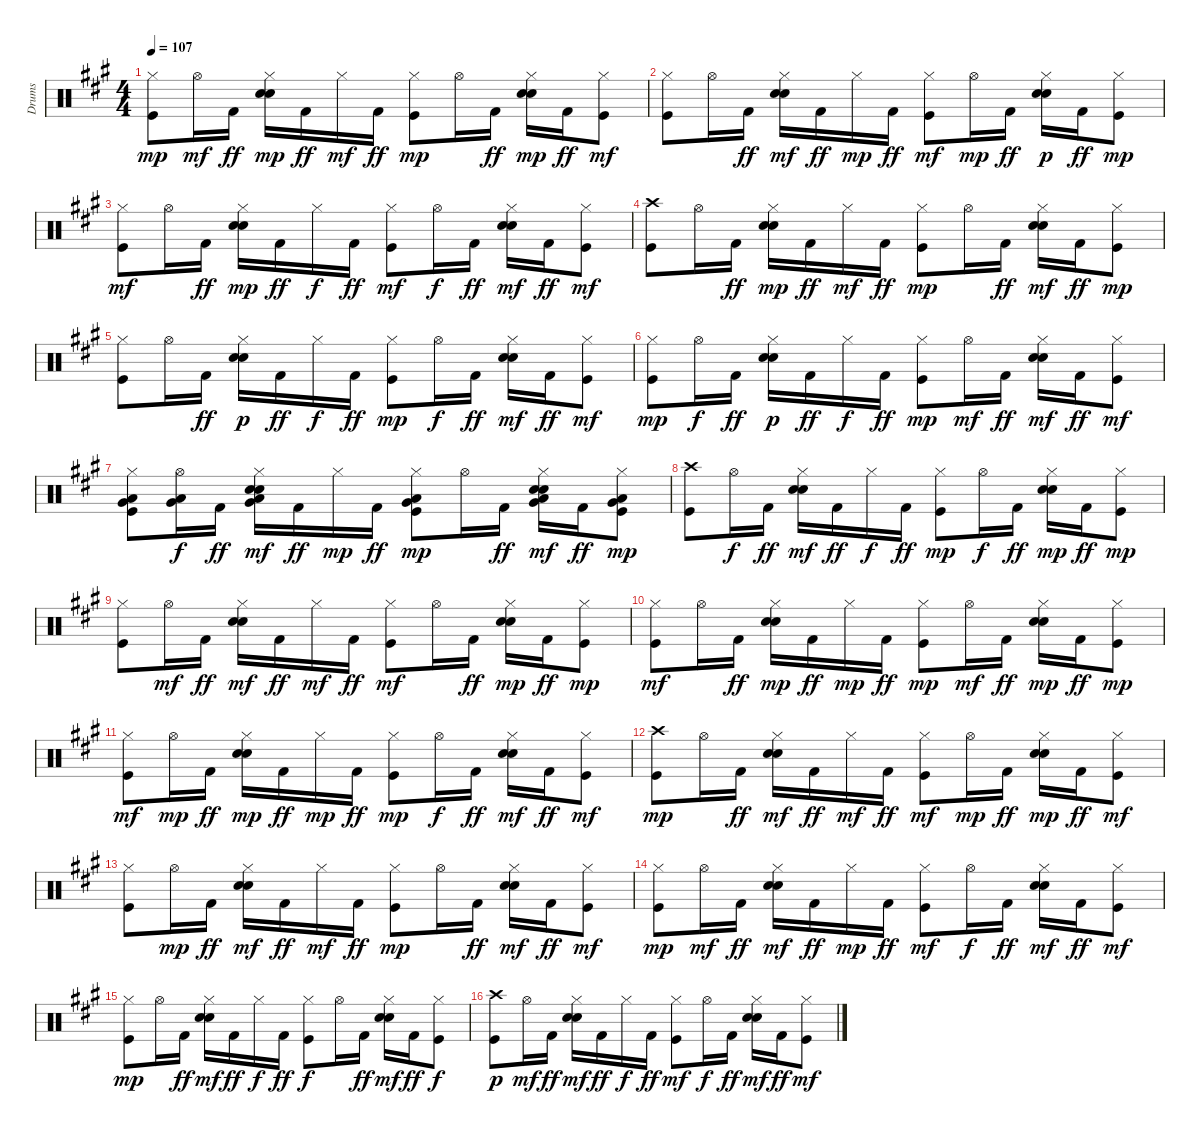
\track ("Drums" "Drums") {instrument percussion}
\staff {score}
\articulation defaults
\ts (4 4)
\tempo 107
\clef neutral
\ks a
("Kick (hit)" "Hi-Hat (closed)").8{dy mp} "Hi-Hat (open)".16{dy mf} "Kick (hit) 2".16{dy ff} ("Snare (hit) 2" "Hand Clap (hit)" "Hi-Hat (closed)").16{dy mp} "Kick (hit) 2".16{dy ff} "Hi-Hat (closed)".16{dy mf} "Kick (hit) 2".16{dy ff} ("Kick (hit)" "Hi-Hat (closed)").8{dy mp} "Hi-Hat (open)".16 "Kick (hit) 2".16{dy ff} ("Snare (hit) 2" "Hand Clap (hit)" "Hi-Hat (closed)").16{dy mp} "Kick (hit) 2".16{dy ff} ("Kick (hit)" "Hi-Hat (closed)").8{dy mf} |
("Kick (hit)" "Hi-Hat (closed)").8 "Hi-Hat (open)".16 "Kick (hit) 2".16{dy ff} ("Snare (hit) 2" "Hand Clap (hit)" "Hi-Hat (closed)").16{dy mf} "Kick (hit) 2".16{dy ff} "Hi-Hat (closed)".16{dy mp} "Kick (hit) 2".16{dy ff} ("Kick (hit)" "Hi-Hat (closed)").8{dy mf} "Hi-Hat (open)".16{dy mp} "Kick (hit) 2".16{dy ff} ("Snare (hit) 2" "Hand Clap (hit)" "Hi-Hat (closed)").16{dy p} "Kick (hit) 2".16{dy ff} ("Kick (hit)" "Hi-Hat (closed)").8{dy mp} |
("Kick (hit)" "Hi-Hat (closed)").8{dy mf} "Hi-Hat (open)".16 "Kick (hit) 2".16{dy ff} ("Snare (hit) 2" "Hand Clap (hit)" "Hi-Hat (closed)").16{dy mp} "Kick (hit) 2".16{dy ff} "Hi-Hat (closed)".16{dy f} "Kick (hit) 2".16{dy ff} ("Kick (hit)" "Hi-Hat (closed)").8{dy mf} "Hi-Hat (open)".16{dy f} "Kick (hit) 2".16{dy ff} ("Snare (hit) 2" "Hand Clap (hit)" "Hi-Hat (closed)").16{dy mf} "Kick (hit) 2".16{dy ff} ("Kick (hit)" "Hi-Hat (closed)").8{dy mf} |
("Kick (hit)" "Crash high (hit)").8 "Hi-Hat (open)".16 "Kick (hit) 2".16{dy ff} ("Snare (hit) 2" "Hand Clap (hit)" "Hi-Hat (closed)").16{dy mp} "Kick (hit) 2".16{dy ff} "Hi-Hat (closed)".16{dy mf} "Kick (hit) 2".16{dy ff} ("Kick (hit)" "Hi-Hat (closed)").8{dy mp} "Hi-Hat (open)".16 "Kick (hit) 2".16{dy ff} ("Snare (hit) 2" "Hand Clap (hit)" "Hi-Hat (closed)").16{dy mf} "Kick (hit) 2".16{dy ff} ("Kick (hit)" "Hi-Hat (closed)").8{dy mp} |
("Kick (hit)" "Hi-Hat (closed)").8 "Hi-Hat (open)".16 "Kick (hit) 2".16{dy ff} ("Snare (hit) 2" "Hand Clap (hit)" "Hi-Hat (closed)").16{dy p} "Kick (hit) 2".16{dy ff} "Hi-Hat (closed)".16{dy f} "Kick (hit) 2".16{dy ff} ("Kick (hit)" "Hi-Hat (closed)").8{dy mp} "Hi-Hat (open)".16{dy f} "Kick (hit) 2".16{dy ff} ("Snare (hit) 2" "Hand Clap (hit)" "Hi-Hat (closed)").16{dy mf} "Kick (hit) 2".16{dy ff} ("Kick (hit)" "Hi-Hat (closed)").8{dy mf} |
("Kick (hit)" "Hi-Hat (closed)").8{dy mp} "Hi-Hat (open)".16{dy f} "Kick (hit) 2".16{dy ff} ("Snare (hit) 2" "Hand Clap (hit)" "Hi-Hat (closed)").16{dy p} "Kick (hit) 2".16{dy ff} "Hi-Hat (closed)".16{dy f} "Kick (hit) 2".16{dy ff} ("Kick (hit)" "Hi-Hat (closed)").8{dy mp} "Hi-Hat (open)".16{dy mf} "Kick (hit) 2".16{dy ff} ("Snare (hit) 2" "Hand Clap (hit)" "Hi-Hat (closed)").16{dy mf} "Kick (hit) 2".16{dy ff} ("Kick (hit)" "Hi-Hat (closed)").8{dy mf} |
("Kick (hit)" "Low Floor Tom (hit)" "Hi-Hat (closed)" "Very Low Tom (hit)").8 ("Low Floor Tom (hit)" "Very Low Tom (hit)" "Hi-Hat (open)").16{dy f} "Kick (hit) 2".16{dy ff} ("Snare (hit) 2" "Hand Clap (hit)" "Low Floor Tom (hit)" "Hi-Hat (closed)" "Very Low Tom (hit)").16{dy mf} "Kick (hit) 2".16{dy ff} "Hi-Hat (closed)".16{dy mp} "Kick (hit) 2".16{dy ff} ("Kick (hit)" "Low Floor Tom (hit)" "Hi-Hat (closed)" "Very Low Tom (hit)").8{dy mp} "Hi-Hat (open)".16 "Kick (hit) 2".16{dy ff} ("Snare (hit) 2" "Hand Clap (hit)" "Low Floor Tom (hit)" "Hi-Hat (closed)" "Very Low Tom (hit)").16{dy mf} "Kick (hit) 2".16{dy ff} ("Kick (hit)" "Low Floor Tom (hit)" "Hi-Hat (closed)" "Very Low Tom (hit)").8{dy mp} |
("Kick (hit)" "Crash high (hit)").8 "Hi-Hat (open)".16{dy f} "Kick (hit) 2".16{dy ff} ("Snare (hit) 2" "Hand Clap (hit)" "Hi-Hat (closed)").16{dy mf} "Kick (hit) 2".16{dy ff} "Hi-Hat (closed)".16{dy f} "Kick (hit) 2".16{dy ff} ("Kick (hit)" "Hi-Hat (closed)").8{dy mp} "Hi-Hat (open)".16{dy f} "Kick (hit) 2".16{dy ff} ("Snare (hit) 2" "Hand Clap (hit)" "Hi-Hat (closed)").16{dy mp} "Kick (hit) 2".16{dy ff} ("Kick (hit)" "Hi-Hat (closed)").8{dy mp} |
("Kick (hit)" "Hi-Hat (closed)").8 "Hi-Hat (open)".16{dy mf} "Kick (hit) 2".16{dy ff} ("Snare (hit) 2" "Hand Clap (hit)" "Hi-Hat (closed)").16{dy mf} "Kick (hit) 2".16{dy ff} "Hi-Hat (closed)".16{dy mf} "Kick (hit) 2".16{dy ff} ("Kick (hit)" "Hi-Hat (closed)").8{dy mf} "Hi-Hat (open)".16 "Kick (hit) 2".16{dy ff} ("Snare (hit) 2" "Hand Clap (hit)" "Hi-Hat (closed)").16{dy mp} "Kick (hit) 2".16{dy ff} ("Kick (hit)" "Hi-Hat (closed)").8{dy mp} |
("Kick (hit)" "Hi-Hat (closed)").8{dy mf} "Hi-Hat (open)".16 "Kick (hit) 2".16{dy ff} ("Snare (hit) 2" "Hand Clap (hit)" "Hi-Hat (closed)").16{dy mp} "Kick (hit) 2".16{dy ff} "Hi-Hat (closed)".16{dy mp} "Kick (hit) 2".16{dy ff} ("Kick (hit)" "Hi-Hat (closed)").8{dy mp} "Hi-Hat (open)".16{dy mf} "Kick (hit) 2".16{dy ff} ("Snare (hit) 2" "Hand Clap (hit)" "Hi-Hat (closed)").16{dy mp} "Kick (hit) 2".16{dy ff} ("Kick (hit)" "Hi-Hat (closed)").8{dy mp} |
("Kick (hit)" "Hi-Hat (closed)").8{dy mf} "Hi-Hat (open)".16{dy mp} "Kick (hit) 2".16{dy ff} ("Snare (hit) 2" "Hand Clap (hit)" "Hi-Hat (closed)").16{dy mp} "Kick (hit) 2".16{dy ff} "Hi-Hat (closed)".16{dy mp} "Kick (hit) 2".16{dy ff} ("Kick (hit)" "Hi-Hat (closed)").8{dy mp} "Hi-Hat (open)".16{dy f} "Kick (hit) 2".16{dy ff} ("Snare (hit) 2" "Hand Clap (hit)" "Hi-Hat (closed)").16{dy mf} "Kick (hit) 2".16{dy ff} ("Kick (hit)" "Hi-Hat (closed)").8{dy mf} |
("Kick (hit)" "Crash high (hit)").8{dy mp} "Hi-Hat (open)".16 "Kick (hit) 2".16{dy ff} ("Snare (hit) 2" "Hand Clap (hit)" "Hi-Hat (closed)").16{dy mf} "Kick (hit) 2".16{dy ff} "Hi-Hat (closed)".16{dy mf} "Kick (hit) 2".16{dy ff} ("Kick (hit)" "Hi-Hat (closed)").8{dy mf} "Hi-Hat (open)".16{dy mp} "Kick (hit) 2".16{dy ff} ("Snare (hit) 2" "Hand Clap (hit)" "Hi-Hat (closed)").16{dy mp} "Kick (hit) 2".16{dy ff} ("Kick (hit)" "Hi-Hat (closed)").8{dy mf} |
("Kick (hit)" "Hi-Hat (closed)").8 "Hi-Hat (open)".16{dy mp} "Kick (hit) 2".16{dy ff} ("Snare (hit) 2" "Hand Clap (hit)" "Hi-Hat (closed)").16{dy mf} "Kick (hit) 2".16{dy ff} "Hi-Hat (closed)".16{dy mf} "Kick (hit) 2".16{dy ff} ("Kick (hit)" "Hi-Hat (closed)").8{dy mp} "Hi-Hat (open)".16 "Kick (hit) 2".16{dy ff} ("Snare (hit) 2" "Hand Clap (hit)" "Hi-Hat (closed)").16{dy mf} "Kick (hit) 2".16{dy ff} ("Kick (hit)" "Hi-Hat (closed)").8{dy mf} |
("Kick (hit)" "Hi-Hat (closed)").8{dy mp} "Hi-Hat (open)".16{dy mf} "Kick (hit) 2".16{dy ff} ("Snare (hit) 2" "Hand Clap (hit)" "Hi-Hat (closed)").16{dy mf} "Kick (hit) 2".16{dy ff} "Hi-Hat (closed)".16{dy mp} "Kick (hit) 2".16{dy ff} ("Kick (hit)" "Hi-Hat (closed)").8{dy mf} "Hi-Hat (open)".16{dy f} "Kick (hit) 2".16{dy ff} ("Snare (hit) 2" "Hand Clap (hit)" "Hi-Hat (closed)").16{dy mf} "Kick (hit) 2".16{dy ff} ("Kick (hit)" "Hi-Hat (closed)").8{dy mf} |
("Kick (hit)" "Hi-Hat (closed)").8{dy mp} "Hi-Hat (open)".16 "Kick (hit) 2".16{dy ff} ("Snare (hit) 2" "Hand Clap (hit)" "Hi-Hat (closed)").16{dy mf} "Kick (hit) 2".16{dy ff} "Hi-Hat (closed)".16{dy f} "Kick (hit) 2".16{dy ff} ("Kick (hit)" "Hi-Hat (closed)").8{dy f} "Hi-Hat (open)".16 "Kick (hit) 2".16{dy ff} ("Snare (hit) 2" "Hand Clap (hit)" "Hi-Hat (closed)").16{dy mf} "Kick (hit) 2".16{dy ff} ("Kick (hit)" "Hi-Hat (closed)").8{dy f} |
("Kick (hit)" "Crash high (hit)").8{dy p} "Hi-Hat (open)".16{dy mf} "Kick (hit) 2".16{dy ff} ("Snare (hit) 2" "Hand Clap (hit)" "Hi-Hat (closed)").16{dy mf} "Kick (hit) 2".16{dy ff} "Hi-Hat (closed)".16{dy f} "Kick (hit) 2".16{dy ff} ("Kick (hit)" "Hi-Hat (closed)").8{dy mf} "Hi-Hat (open)".16{dy f} "Kick (hit) 2".16{dy ff} ("Snare (hit) 2" "Hand Clap (hit)" "Hi-Hat (closed)").16{dy mf} "Kick (hit) 2".16{dy ff} ("Kick (hit)" "Hi-Hat (closed)").8{dy mf}
